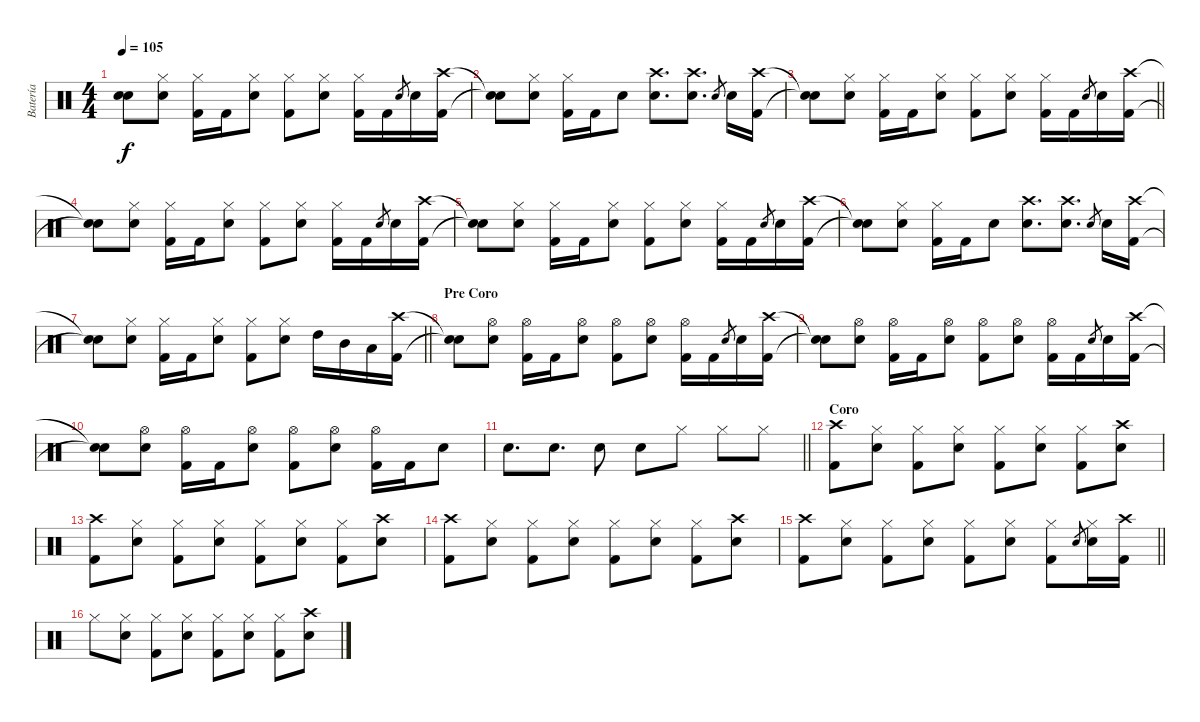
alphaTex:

\track ("Batería" "Batería") {instrument percussion}
\staff {score}
\articulation defaults
\ts (4 4)
\tempo 105
\clef neutral
\ks c
("Snare (hit)"{t} "Snare (hit)"{t}).8{dy f} ("Hi-Hat (closed)" "Snare (hit) 2").8 ("Hi-Hat (closed)" "Kick (hit) 2").16 "Kick (hit) 2".16 ("Hi-Hat (closed)" "Snare (hit) 2").8 ("Hi-Hat (closed)" "Kick (hit) 2").8 ("Hi-Hat (closed)" "Snare (hit) 2").8 ("Hi-Hat (closed)" "Kick (hit) 2").16 "Kick (hit) 2".16 "Snare (hit) 2".8{gr} "Snare (hit) 2".16 ("Kick (hit) 2" "Crash high (hit)").16 |
("Snare (hit)"{t} "Snare (hit)"{t}).8 ("Hi-Hat (closed)" "Snare (hit) 2").8 ("Hi-Hat (closed)" "Kick (hit) 2").16 "Kick (hit) 2".16 "Snare (hit) 2".8 ("Crash high (hit)" "Snare (hit) 2").8{d} ("Crash high (hit)" "Snare (hit) 2").8{d} "Snare (hit) 2".8{gr} "Snare (hit) 2".16 ("Kick (hit) 2" "Crash high (hit)").16 |
\barLineRight lightlight
("Snare (hit)"{t} "Snare (hit)"{t}).8 ("Hi-Hat (closed)" "Snare (hit) 2").8 ("Hi-Hat (closed)" "Kick (hit) 2").16 "Kick (hit) 2".16 ("Hi-Hat (closed)" "Snare (hit) 2").8 ("Hi-Hat (closed)" "Kick (hit) 2").8 ("Hi-Hat (closed)" "Snare (hit) 2").8 ("Hi-Hat (closed)" "Kick (hit) 2").16 "Kick (hit) 2".16 "Snare (hit) 2".8{gr} "Snare (hit) 2".16 ("Kick (hit) 2" "Crash high (hit)").16 |
("Snare (hit)"{t} "Snare (hit)"{t}).8 ("Hi-Hat (closed)" "Snare (hit) 2").8 ("Hi-Hat (closed)" "Kick (hit) 2").16 "Kick (hit) 2".16 ("Hi-Hat (closed)" "Snare (hit) 2").8 ("Hi-Hat (closed)" "Kick (hit) 2").8 ("Hi-Hat (closed)" "Snare (hit) 2").8 ("Hi-Hat (closed)" "Kick (hit) 2").16 "Kick (hit) 2".16 "Snare (hit) 2".8{gr} "Snare (hit) 2".16 ("Kick (hit) 2" "Crash high (hit)").16 |
("Snare (hit)"{t} "Snare (hit)"{t}).8 ("Hi-Hat (closed)" "Snare (hit) 2").8 ("Hi-Hat (closed)" "Kick (hit) 2").16 "Kick (hit) 2".16 ("Hi-Hat (closed)" "Snare (hit) 2").8 ("Hi-Hat (closed)" "Kick (hit) 2").8 ("Hi-Hat (closed)" "Snare (hit) 2").8 ("Hi-Hat (closed)" "Kick (hit) 2").16 "Kick (hit) 2".16 "Snare (hit) 2".8{gr} "Snare (hit) 2".16 ("Kick (hit) 2" "Crash high (hit)").16 |
("Snare (hit)"{t} "Snare (hit)"{t}).8 ("Hi-Hat (closed)" "Snare (hit) 2").8 ("Hi-Hat (closed)" "Kick (hit) 2").16 "Kick (hit) 2".16 "Snare (hit) 2".8 ("Crash high (hit)" "Snare (hit) 2").8{d} ("Crash high (hit)" "Snare (hit) 2").8{d} "Snare (hit) 2".8{gr} "Snare (hit) 2".16 ("Kick (hit) 2" "Crash high (hit)").16 |
\barLineRight lightlight
("Snare (hit)"{t} "Snare (hit)"{t}).8 ("Hi-Hat (closed)" "Snare (hit) 2").8 ("Hi-Hat (closed)" "Kick (hit) 2").16 "Kick (hit) 2".16 ("Hi-Hat (closed)" "Snare (hit) 2").8 ("Hi-Hat (closed)" "Kick (hit) 2").8 ("Hi-Hat (closed)" "Snare (hit) 2").8 "High Tom (hit)".16 "Mid Tom (hit)".16 "Low Tom (hit)".16 ("Kick (hit) 2" "Crash high (hit)").16 |
\section ("" "Pre Coro")
("Snare (hit)"{t} "Snare (hit)"{t}).8 ("Hi-Hat (open)" "Snare (hit) 2").8 ("Hi-Hat (open)" "Kick (hit) 2").16 "Kick (hit) 2".16 ("Hi-Hat (open)" "Snare (hit) 2").8 ("Hi-Hat (open)" "Kick (hit) 2").8 ("Hi-Hat (open)" "Snare (hit) 2").8 ("Hi-Hat (open)" "Kick (hit) 2").16 "Kick (hit) 2".16 "Snare (hit) 2".8{gr} "Snare (hit) 2".16 ("Kick (hit) 2" "Crash high (hit)").16 |
("Snare (hit)"{t} "Snare (hit)"{t}).8 ("Hi-Hat (open)" "Snare (hit) 2").8 ("Hi-Hat (open)" "Kick (hit) 2").16 "Kick (hit) 2".16 ("Hi-Hat (open)" "Snare (hit) 2").8 ("Hi-Hat (open)" "Kick (hit) 2").8 ("Hi-Hat (open)" "Snare (hit) 2").8 ("Hi-Hat (open)" "Kick (hit) 2").16 "Kick (hit) 2".16 "Snare (hit) 2".8{gr} "Snare (hit) 2".16 ("Kick (hit) 2" "Crash high (hit)").16 |
("Snare (hit)"{t} "Snare (hit)"{t}).8 ("Hi-Hat (open)" "Snare (hit) 2").8 ("Hi-Hat (open)" "Kick (hit) 2").16 "Kick (hit) 2".16 ("Hi-Hat (open)" "Snare (hit) 2").8 ("Hi-Hat (open)" "Kick (hit) 2").8 ("Hi-Hat (open)" "Snare (hit) 2").8 ("Hi-Hat (open)" "Kick (hit) 2").16 "Kick (hit) 2".16 "Snare (hit) 2".8 |
\barLineRight lightlight "Snare (hit) 2".8{d} "Snare (hit) 2".8{d} "Snare (hit) 2".8 "Snare (hit) 2".8 "Hi-Hat (closed)".8 "Hi-Hat (closed)".8 "Hi-Hat (closed)".8
|
\section ("" "Coro")
("Crash high (hit)" "Kick (hit) 2").8 ("Hi-Hat (closed)" "Snare (hit) 2").8 ("Hi-Hat (closed)" "Kick (hit) 2").8 ("Hi-Hat (closed)" "Snare (hit) 2").8 ("Hi-Hat (closed)" "Kick (hit) 2").8 ("Hi-Hat (closed)" "Snare (hit) 2").8 ("Hi-Hat (closed)" "Kick (hit) 2").8 ("Crash high (hit)" "Snare (hit) 2").8 |
("Crash high (hit)" "Kick (hit) 2").8 ("Hi-Hat (closed)" "Snare (hit) 2").8 ("Hi-Hat (closed)" "Kick (hit) 2").8 ("Hi-Hat (closed)" "Snare (hit) 2").8 ("Hi-Hat (closed)" "Kick (hit) 2").8 ("Hi-Hat (closed)" "Snare (hit) 2").8 ("Hi-Hat (closed)" "Kick (hit) 2").8 ("Crash high (hit)" "Snare (hit) 2").8 |
("Crash high (hit)" "Kick (hit) 2").8 ("Hi-Hat (closed)" "Snare (hit) 2").8 ("Hi-Hat (closed)" "Kick (hit) 2").8 ("Hi-Hat (closed)" "Snare (hit) 2").8 ("Hi-Hat (closed)" "Kick (hit) 2").8 ("Hi-Hat (closed)" "Snare (hit) 2").8 ("Hi-Hat (closed)" "Kick (hit) 2").8 ("Crash high (hit)" "Snare (hit) 2").8 |
\barLineRight lightlight
("Crash high (hit)" "Kick (hit) 2").8 ("Hi-Hat (closed)" "Snare (hit) 2").8 ("Hi-Hat (closed)" "Kick (hit) 2").8 ("Hi-Hat (closed)" "Snare (hit) 2").8 ("Hi-Hat (closed)" "Kick (hit) 2").8 ("Hi-Hat (closed)" "Snare (hit) 2").8 ("Hi-Hat (closed)" "Kick (hit) 2").8 "Snare (hit) 2".8{gr} ("Hi-Hat (closed)" "Snare (hit) 2").16 ("Crash high (hit)" "Kick (hit) 2").16 |
"Hi-Hat (closed)".8 ("Hi-Hat (closed)" "Snare (hit) 2").8 ("Hi-Hat (closed)" "Kick (hit) 2").8 ("Hi-Hat (closed)" "Snare (hit) 2").8 ("Hi-Hat (closed)" "Kick (hit) 2").8 ("Hi-Hat (closed)" "Snare (hit) 2").8 ("Hi-Hat (closed)" "Kick (hit) 2").8 ("Crash high (hit)" "Snare (hit) 2").8
